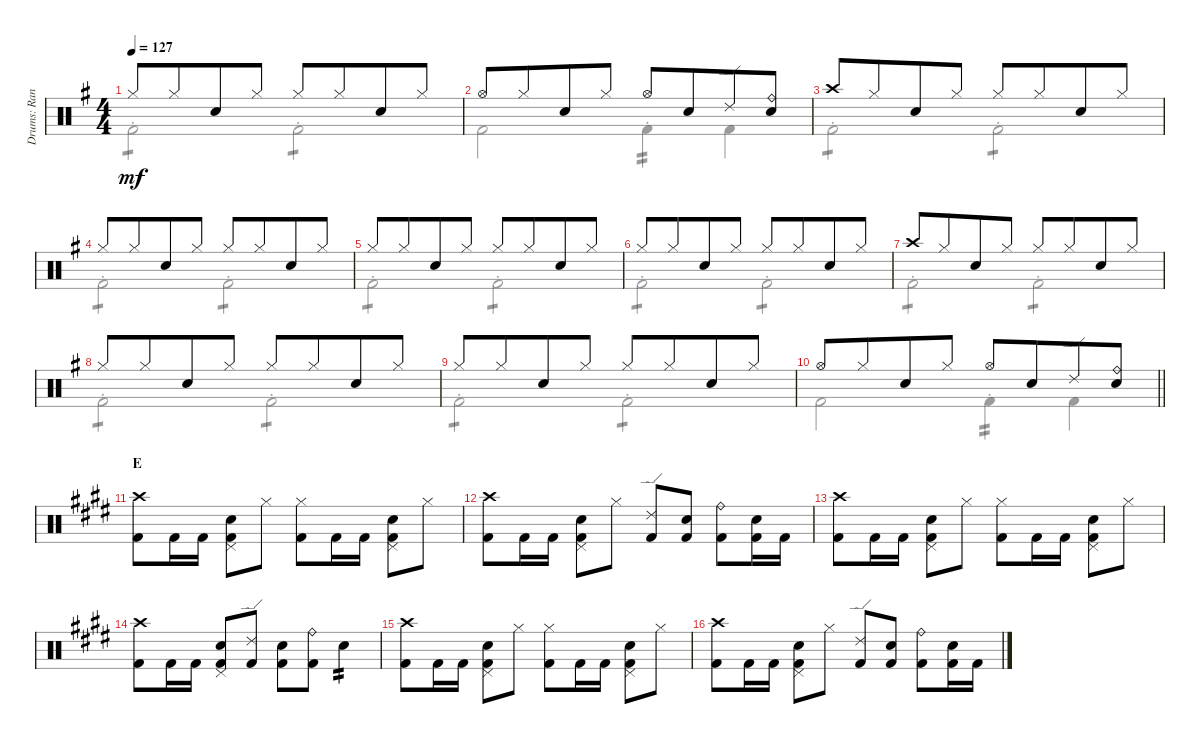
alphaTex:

\track ("Drums: Randy" "Drums: Ran") {instrument percussion}
\staff {score}
\articulation defaults
\voice
\ts (4 4)
\tempo 127
\clef neutral
\ks g "Hi-Hat (closed)".8{dy mf} "Hi-Hat (closed)".8{beam merge} "Snare (hit) 2".8 "Hi-Hat (closed)".8 "Hi-Hat (closed)".8 "Hi-Hat (closed)".8{beam merge} "Snare (hit) 2".8 "Hi-Hat (closed)".8
|
"Hi-Hat (open)".8 "Hi-Hat (closed)".8{beam merge} "Snare (hit) 2".8 "Hi-Hat (closed)".8 "Hi-Hat (open)".8 "Snare (hit) 2".8{beam merge} "Ride (edge) 2".8 ("Ride (bell)" "Snare (hit) 2").8 |
"Crash high (hit)".8 "Hi-Hat (closed)".8{beam merge} "Snare (hit) 2".8 "Hi-Hat (closed)".8 "Hi-Hat (closed)".8 "Hi-Hat (closed)".8{beam merge} "Snare (hit) 2".8 "Hi-Hat (closed)".8 |
"Hi-Hat (closed)".8 "Hi-Hat (closed)".8{beam merge} "Snare (hit) 2".8 "Hi-Hat (closed)".8 "Hi-Hat (closed)".8 "Hi-Hat (closed)".8{beam merge} "Snare (hit) 2".8 "Hi-Hat (closed)".8 |
"Hi-Hat (closed)".8 "Hi-Hat (closed)".8{beam merge} "Snare (hit) 2".8 "Hi-Hat (closed)".8 "Hi-Hat (closed)".8 "Hi-Hat (closed)".8{beam merge} "Snare (hit) 2".8 "Hi-Hat (closed)".8 |
"Hi-Hat (closed)".8 "Hi-Hat (closed)".8{beam merge} "Snare (hit) 2".8 "Hi-Hat (closed)".8 "Hi-Hat (closed)".8 "Hi-Hat (closed)".8{beam merge} "Snare (hit) 2".8 "Hi-Hat (closed)".8 |
"Crash high (hit)".8 "Hi-Hat (closed)".8{beam merge} "Snare (hit) 2".8 "Hi-Hat (closed)".8 "Hi-Hat (closed)".8 "Hi-Hat (closed)".8{beam merge} "Snare (hit) 2".8 "Hi-Hat (closed)".8 |
"Hi-Hat (closed)".8 "Hi-Hat (closed)".8{beam merge} "Snare (hit) 2".8 "Hi-Hat (closed)".8 "Hi-Hat (closed)".8 "Hi-Hat (closed)".8{beam merge} "Snare (hit) 2".8 "Hi-Hat (closed)".8 |
"Hi-Hat (closed)".8 "Hi-Hat (closed)".8{beam merge} "Snare (hit) 2".8 "Hi-Hat (closed)".8 "Hi-Hat (closed)".8 "Hi-Hat (closed)".8{beam merge} "Snare (hit) 2".8 "Hi-Hat (closed)".8 |
\barLineRight lightlight "Hi-Hat (open)".8 "Hi-Hat (closed)".8{beam merge} "Snare (hit) 2".8 "Hi-Hat (closed)".8 "Hi-Hat (open)".8 "Snare (hit) 2".8{beam merge} "Ride (edge) 2".8
("Ride (bell)" "Snare (hit) 2").8 |
\section ("" "E")
\ks e
("Crash high (hit)" "Kick (hit) 2").8 "Kick (hit) 2".16 "Kick (hit) 2".16 ("Pedal Hi-Hat (hit)" "Snare (hit) 2" "Kick (hit) 2").8 "Hi-Hat (closed)".8 ("Hi-Hat (closed)" "Kick (hit) 2").8 "Kick (hit) 2".16 "Kick (hit) 2".16 ("Pedal Hi-Hat (hit)" "Snare (hit) 2" "Kick (hit) 2").8 "Hi-Hat (closed)".8 |
("Crash high (hit)" "Kick (hit) 2").8 "Kick (hit) 2".16 "Kick (hit) 2".16 ("Pedal Hi-Hat (hit)" "Snare (hit) 2" "Kick (hit) 2").8 "Hi-Hat (closed)".8 ("Ride (edge) 2" "Kick (hit) 2").8 ("Snare (hit) 2" "Kick (hit) 2").8 ("Ride (bell)" "Kick (hit) 2").8 ("Snare (hit) 2" "Kick (hit) 2").16 "Kick (hit) 2".16 |
("Crash high (hit)" "Kick (hit) 2").8 "Kick (hit) 2".16 "Kick (hit) 2".16 ("Pedal Hi-Hat (hit)" "Snare (hit) 2" "Kick (hit) 2").8 "Hi-Hat (closed)".8 ("Hi-Hat (closed)" "Kick (hit) 2").8 "Kick (hit) 2".16 "Kick (hit) 2".16 ("Pedal Hi-Hat (hit)" "Snare (hit) 2" "Kick (hit) 2").8 "Hi-Hat (closed)".8 |
("Crash high (hit)" "Kick (hit) 2").8 "Kick (hit) 2".16 "Kick (hit) 2".16 ("Pedal Hi-Hat (hit)" "Snare (hit) 2" "Kick (hit) 2").8 ("Ride (edge) 2" "Kick (hit) 2").8 ("Snare (hit) 2" "Kick (hit) 2").8 ("Ride (bell)" "Kick (hit) 2").8 "Snare (hit) 2".4{tp 2} |
("Crash high (hit)" "Kick (hit) 2").8 "Kick (hit) 2".16 "Kick (hit) 2".16 ("Pedal Hi-Hat (hit)" "Snare (hit) 2" "Kick (hit) 2").8 "Hi-Hat (closed)".8 ("Hi-Hat (closed)" "Kick (hit) 2").8 "Kick (hit) 2".16 "Kick (hit) 2".16 ("Pedal Hi-Hat (hit)" "Snare (hit) 2" "Kick (hit) 2").8 "Hi-Hat (closed)".8 |
("Crash high (hit)" "Kick (hit) 2").8 "Kick (hit) 2".16 "Kick (hit) 2".16 ("Pedal Hi-Hat (hit)" "Snare (hit) 2" "Kick (hit) 2").8 "Hi-Hat (closed)".8 ("Ride (edge) 2" "Kick (hit) 2").8 ("Snare (hit) 2" "Kick (hit) 2").8 ("Ride (bell)" "Kick (hit) 2").8 ("Snare (hit) 2" "Kick (hit) 2").16 "Kick (hit) 2".16
\voice
\clef neutral
\ottava regular
\simile none
\ks g "Kick (hit) 2"{st}.2{tp 1 dy mf} "Kick (hit) 2"{st}.2{tp 1}
|
"Kick (hit) 2".2 "Kick (hit) 2"{st}.4{tp 2} "Kick (hit) 2".4 |
"Kick (hit) 2"{st}.2{tp 1} "Kick (hit) 2"{st}.2{tp 1} |
"Kick (hit) 2"{st}.2{tp 1} "Kick (hit) 2"{st}.2{tp 1} |
"Kick (hit) 2"{st}.2{tp 1} "Kick (hit) 2"{st}.2{tp 1} |
"Kick (hit) 2"{st}.2{tp 1} "Kick (hit) 2"{st}.2{tp 1} |
"Kick (hit) 2"{st}.2{tp 1} "Kick (hit) 2"{st}.2{tp 1} |
"Kick (hit) 2"{st}.2{tp 1} "Kick (hit) 2"{st}.2{tp 1} |
"Kick (hit) 2"{st}.2{tp 1} "Kick (hit) 2"{st}.2{tp 1} |
\barLineRight lightlight "Kick (hit) 2".2 "Kick (hit) 2"{st}.4{tp 2} "Kick (hit) 2".4
|
\ks e
|
|
|
|
|
